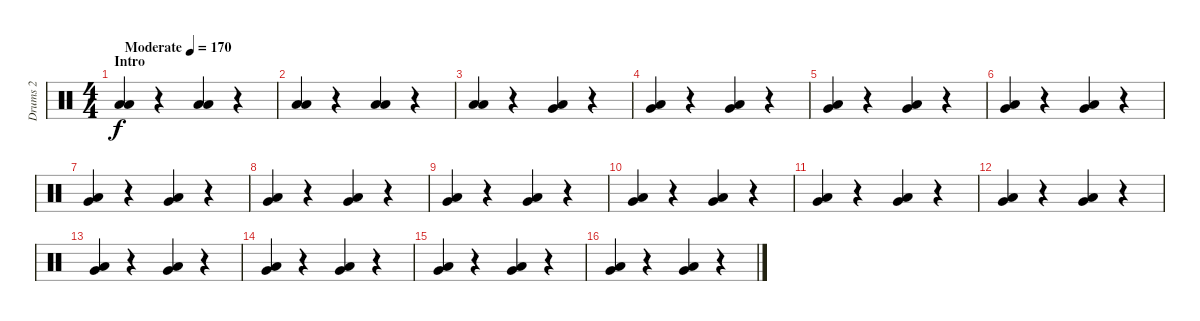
\track ("Drums 2" "Drums 2") {instrument percussion}
\staff {score}
\articulation defaults
\ts (4 4)
\section ("" "Intro")
\tempo (170 "Moderate")
\clef neutral
\ks c
("Low Floor Tom (hit)" "Low Tom (hit)").4{dy f} r.4 ("Low Floor Tom (hit)" "Low Tom (hit)").4 r.4 |
("Low Floor Tom (hit)" "Low Tom (hit)").4 r.4 ("Low Floor Tom (hit)" "Low Tom (hit)").4 r.4 |
("Low Floor Tom (hit)" "Low Tom (hit)").4 r.4 ("Very Low Tom (hit)" "Low Tom (hit)").4 r.4 |
("Very Low Tom (hit)" "Low Tom (hit)").4 r.4 ("Very Low Tom (hit)" "Low Tom (hit)").4 r.4 |
("Very Low Tom (hit)" "Low Tom (hit)").4 r.4 ("Very Low Tom (hit)" "Low Tom (hit)").4 r.4 |
("Very Low Tom (hit)" "Low Tom (hit)").4 r.4 ("Very Low Tom (hit)" "Low Tom (hit)").4 r.4 |
("Very Low Tom (hit)" "Low Tom (hit)").4 r.4 ("Very Low Tom (hit)" "Low Tom (hit)").4 r.4 |
("Very Low Tom (hit)" "Low Tom (hit)").4 r.4 ("Very Low Tom (hit)" "Low Tom (hit)").4 r.4 |
("Very Low Tom (hit)" "Low Tom (hit)").4 r.4 ("Very Low Tom (hit)" "Low Tom (hit)").4 r.4 |
("Very Low Tom (hit)" "Low Tom (hit)").4 r.4 ("Very Low Tom (hit)" "Low Tom (hit)").4 r.4 |
("Very Low Tom (hit)" "Low Tom (hit)").4 r.4 ("Very Low Tom (hit)" "Low Tom (hit)").4 r.4 |
("Very Low Tom (hit)" "Low Tom (hit)").4 r.4 ("Very Low Tom (hit)" "Low Tom (hit)").4 r.4 |
("Very Low Tom (hit)" "Low Tom (hit)").4 r.4 ("Very Low Tom (hit)" "Low Tom (hit)").4 r.4 |
("Very Low Tom (hit)" "Low Tom (hit)").4 r.4 ("Very Low Tom (hit)" "Low Tom (hit)").4 r.4 |
("Very Low Tom (hit)" "Low Tom (hit)").4 r.4 ("Very Low Tom (hit)" "Low Tom (hit)").4 r.4 |
("Very Low Tom (hit)" "Low Tom (hit)").4 r.4 ("Very Low Tom (hit)" "Low Tom (hit)").4 r.4
